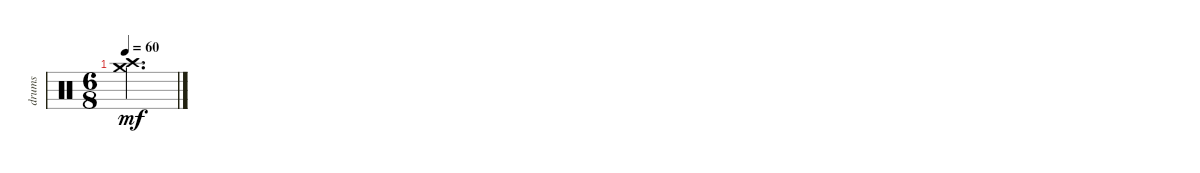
\track ("drums" "drums") {instrument percussion}
\staff {score}
\articulation defaults
\ts (6 8)
\tempo 60
\clef neutral
\ks c
("Crash high (hit)" "Crash medium (hit)").2{d dy mf}
